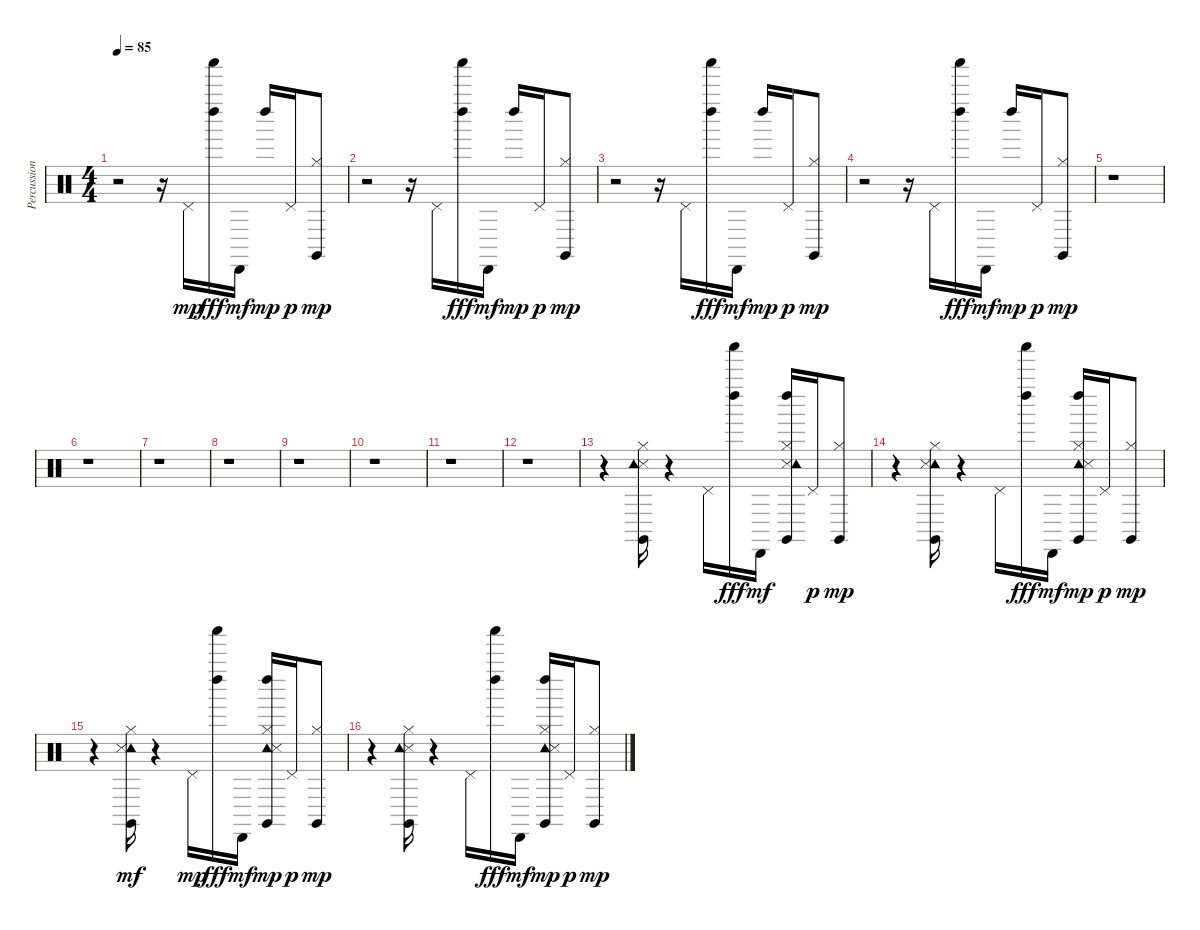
\track ("Percussion" "Percussion") {instrument percussion}
\staff {score}
\articulation defaults
\ts (4 4)
\tempo 85
\clef neutral
\ks c
r.2{dy mp} r.16 "Pedal Hi-Hat (hit)".16 ("Left Maraca (hit)" "Shaker (hit)").16{dy fff} "Cabasa (hit)".16{dy mf} "Left Maraca (hit)".16{dy mp} "Pedal Hi-Hat (hit)".16{dy p} ("Hi-Hat (closed)" "Claves (hit)").8{dy mp} |
r.2 r.16 "Pedal Hi-Hat (hit)".16 ("Shaker (hit)" "Left Maraca (hit)").16{dy fff} "Cabasa (hit)".16{dy mf} "Left Maraca (hit)".16{dy mp} "Pedal Hi-Hat (hit)".16{dy p} ("Claves (hit)" "Hi-Hat (closed)").8{dy mp} |
r.2 r.16 "Pedal Hi-Hat (hit)".16 ("Left Maraca (hit)" "Shaker (hit)").16{dy fff} "Cabasa (hit)".16{dy mf} "Left Maraca (hit)".16{dy mp} "Pedal Hi-Hat (hit)".16{dy p} ("Claves (hit)" "Hi-Hat (closed)").8{dy mp} |
r.2 r.16 "Pedal Hi-Hat (hit)".16 ("Left Maraca (hit)" "Shaker (hit)").16{dy fff} "Cabasa (hit)".16{dy mf} "Left Maraca (hit)".16{dy mp} "Pedal Hi-Hat (hit)".16{dy p} ("Hi-Hat (closed)" "Claves (hit)").8{dy mp} |
r.1 |
r.1 |
r.1 |
r.1 |
r.1 |
r.1 |
r.1 |
r.1 |
r.4 ("Hi-Hat (closed)" "Snare (side stick) 3" "Tambourine (hit)" "Claves (hit)").16 r.4 "Pedal Hi-Hat (hit)".16 ("Left Maraca (hit)" "Shaker (hit)").16{dy fff} "Cabasa (hit)".16{dy mf} ("Left Maraca (hit)" "Claves (hit)" "Hi-Hat (closed)" "Snare (side stick) 3" "Tambourine (hit)").16 "Pedal Hi-Hat (hit)".16{dy p} ("Hi-Hat (closed)" "Claves (hit)").8{dy mp} |
r.4 ("Tambourine (hit)" "Snare (side stick) 3" "Hi-Hat (closed)" "Claves (hit)").16 r.4 "Pedal Hi-Hat (hit)".16 ("Left Maraca (hit)" "Shaker (hit)").16{dy fff} "Cabasa (hit)".16{dy mf} ("Claves (hit)" "Tambourine (hit)" "Snare (side stick) 3" "Hi-Hat (closed)" "Left Maraca (hit)").16{dy mp} "Pedal Hi-Hat (hit)".16{dy p} ("Claves (hit)" "Hi-Hat (closed)").8{dy mp} |
r.4 ("Claves (hit)" "Tambourine (hit)" "Hi-Hat (closed)" "Snare (side stick) 3").16{dy mf} r.4 "Pedal Hi-Hat (hit)".16{dy mp} ("Left Maraca (hit)" "Shaker (hit)").16{dy fff} "Cabasa (hit)".16{dy mf} ("Hi-Hat (closed)" "Tambourine (hit)" "Left Maraca (hit)" "Snare (side stick) 3" "Claves (hit)").16{dy mp} "Pedal Hi-Hat (hit)".16{dy p} ("Hi-Hat (closed)" "Claves (hit)").8{dy mp} |
r.4 ("Snare (side stick) 3" "Claves (hit)" "Tambourine (hit)" "Hi-Hat (closed)").16 r.4 "Pedal Hi-Hat (hit)".16 ("Shaker (hit)" "Left Maraca (hit)").16{dy fff} "Cabasa (hit)".16{dy mf} ("Left Maraca (hit)" "Tambourine (hit)" "Claves (hit)" "Snare (side stick) 3" "Hi-Hat (closed)").16{dy mp} "Pedal Hi-Hat (hit)".16{dy p} ("Claves (hit)" "Hi-Hat (closed)").8{dy mp}
